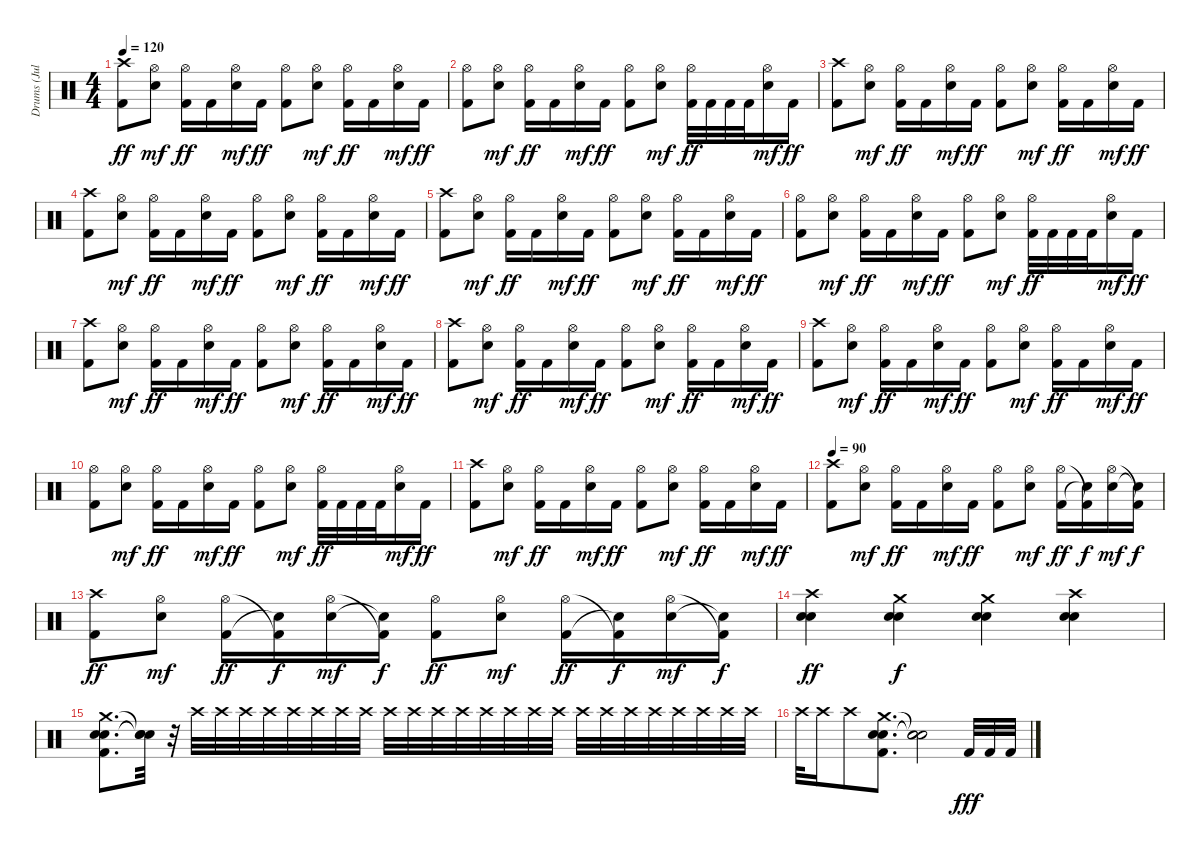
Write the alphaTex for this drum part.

\track ("Drums (Julian Del Rosario)" "Drums (Jul") {instrument percussion}
\staff {score}
\articulation defaults
\ts (4 4)
\tempo 120
\clef neutral
\ks c
("Crash high (hit)" "Kick (hit) 2").8{dy ff} ("Hi-Hat (open)" "Snare (hit) 2").8{dy mf} ("Hi-Hat (open)" "Kick (hit) 2").16{dy ff} "Kick (hit) 2".16 ("Hi-Hat (open)" "Snare (hit) 2").16{dy mf} "Kick (hit) 2".16{dy ff} ("Hi-Hat (open)" "Kick (hit) 2").8 ("Hi-Hat (open)" "Snare (hit) 2").8{dy mf} ("Hi-Hat (open)" "Kick (hit) 2").16{dy ff} "Kick (hit) 2".16 ("Hi-Hat (open)" "Snare (hit) 2").16{dy mf} "Kick (hit) 2".16{dy ff} |
("Hi-Hat (open)" "Kick (hit) 2").8 ("Hi-Hat (open)" "Snare (hit) 2").8{dy mf} ("Hi-Hat (open)" "Kick (hit) 2").16{dy ff} "Kick (hit) 2".16 ("Hi-Hat (open)" "Snare (hit) 2").16{dy mf} "Kick (hit) 2".16{dy ff} ("Hi-Hat (open)" "Kick (hit) 2").8 ("Hi-Hat (open)" "Snare (hit) 2").8{dy mf} ("Hi-Hat (open)" "Kick (hit) 2").32{dy ff} "Kick (hit) 2".32 "Kick (hit) 2".32 "Kick (hit) 2".32 ("Hi-Hat (open)" "Snare (hit) 2").16{dy mf} "Kick (hit) 2".16{dy ff} |
("Crash high (hit)" "Kick (hit) 2").8 ("Hi-Hat (open)" "Snare (hit) 2").8{dy mf} ("Hi-Hat (open)" "Kick (hit) 2").16{dy ff} "Kick (hit) 2".16 ("Hi-Hat (open)" "Snare (hit) 2").16{dy mf} "Kick (hit) 2".16{dy ff} ("Hi-Hat (open)" "Kick (hit) 2").8 ("Hi-Hat (open)" "Snare (hit) 2").8{dy mf} ("Hi-Hat (open)" "Kick (hit) 2").16{dy ff} "Kick (hit) 2".16 ("Hi-Hat (open)" "Snare (hit) 2").16{dy mf} "Kick (hit) 2".16{dy ff} |
("Crash high (hit)" "Kick (hit) 2").8 ("Hi-Hat (open)" "Snare (hit) 2").8{dy mf} ("Hi-Hat (open)" "Kick (hit) 2").16{dy ff} "Kick (hit) 2".16 ("Hi-Hat (open)" "Snare (hit) 2").16{dy mf} "Kick (hit) 2".16{dy ff} ("Hi-Hat (open)" "Kick (hit) 2").8 ("Hi-Hat (open)" "Snare (hit) 2").8{dy mf} ("Hi-Hat (open)" "Kick (hit) 2").16{dy ff} "Kick (hit) 2".16 ("Hi-Hat (open)" "Snare (hit) 2").16{dy mf} "Kick (hit) 2".16{dy ff} |
("Crash high (hit)" "Kick (hit) 2").8 ("Hi-Hat (open)" "Snare (hit) 2").8{dy mf} ("Hi-Hat (open)" "Kick (hit) 2").16{dy ff} "Kick (hit) 2".16 ("Hi-Hat (open)" "Snare (hit) 2").16{dy mf} "Kick (hit) 2".16{dy ff} ("Hi-Hat (open)" "Kick (hit) 2").8 ("Hi-Hat (open)" "Snare (hit) 2").8{dy mf} ("Hi-Hat (open)" "Kick (hit) 2").16{dy ff} "Kick (hit) 2".16 ("Hi-Hat (open)" "Snare (hit) 2").16{dy mf} "Kick (hit) 2".16{dy ff} |
("Hi-Hat (open)" "Kick (hit) 2").8 ("Hi-Hat (open)" "Snare (hit) 2").8{dy mf} ("Hi-Hat (open)" "Kick (hit) 2").16{dy ff} "Kick (hit) 2".16 ("Hi-Hat (open)" "Snare (hit) 2").16{dy mf} "Kick (hit) 2".16{dy ff} ("Hi-Hat (open)" "Kick (hit) 2").8 ("Hi-Hat (open)" "Snare (hit) 2").8{dy mf} ("Hi-Hat (open)" "Kick (hit) 2").32{dy ff} "Kick (hit) 2".32 "Kick (hit) 2".32 "Kick (hit) 2".32 ("Hi-Hat (open)" "Snare (hit) 2").16{dy mf} "Kick (hit) 2".16{dy ff} |
("Crash high (hit)" "Kick (hit) 2").8 ("Hi-Hat (open)" "Snare (hit) 2").8{dy mf} ("Hi-Hat (open)" "Kick (hit) 2").16{dy ff} "Kick (hit) 2".16 ("Hi-Hat (open)" "Snare (hit) 2").16{dy mf} "Kick (hit) 2".16{dy ff} ("Hi-Hat (open)" "Kick (hit) 2").8 ("Hi-Hat (open)" "Snare (hit) 2").8{dy mf} ("Hi-Hat (open)" "Kick (hit) 2").16{dy ff} "Kick (hit) 2".16 ("Hi-Hat (open)" "Snare (hit) 2").16{dy mf} "Kick (hit) 2".16{dy ff} |
("Crash high (hit)" "Kick (hit) 2").8 ("Hi-Hat (open)" "Snare (hit) 2").8{dy mf} ("Hi-Hat (open)" "Kick (hit) 2").16{dy ff} "Kick (hit) 2".16 ("Hi-Hat (open)" "Snare (hit) 2").16{dy mf} "Kick (hit) 2".16{dy ff} ("Hi-Hat (open)" "Kick (hit) 2").8 ("Hi-Hat (open)" "Snare (hit) 2").8{dy mf} ("Hi-Hat (open)" "Kick (hit) 2").16{dy ff} "Kick (hit) 2".16 ("Hi-Hat (open)" "Snare (hit) 2").16{dy mf} "Kick (hit) 2".16{dy ff} |
("Crash high (hit)" "Kick (hit) 2").8 ("Hi-Hat (open)" "Snare (hit) 2").8{dy mf} ("Hi-Hat (open)" "Kick (hit) 2").16{dy ff} "Kick (hit) 2".16 ("Hi-Hat (open)" "Snare (hit) 2").16{dy mf} "Kick (hit) 2".16{dy ff} ("Hi-Hat (open)" "Kick (hit) 2").8 ("Hi-Hat (open)" "Snare (hit) 2").8{dy mf} ("Hi-Hat (open)" "Kick (hit) 2").16{dy ff} "Kick (hit) 2".16 ("Hi-Hat (open)" "Snare (hit) 2").16{dy mf} "Kick (hit) 2".16{dy ff} |
("Hi-Hat (open)" "Kick (hit) 2").8 ("Hi-Hat (open)" "Snare (hit) 2").8{dy mf} ("Hi-Hat (open)" "Kick (hit) 2").16{dy ff} "Kick (hit) 2".16 ("Hi-Hat (open)" "Snare (hit) 2").16{dy mf} "Kick (hit) 2".16{dy ff} ("Hi-Hat (open)" "Kick (hit) 2").8 ("Hi-Hat (open)" "Snare (hit) 2").8{dy mf} ("Hi-Hat (open)" "Kick (hit) 2").32{dy ff} "Kick (hit) 2".32 "Kick (hit) 2".32 "Kick (hit) 2".32 ("Hi-Hat (open)" "Snare (hit) 2").16{dy mf} "Kick (hit) 2".16{dy ff} |
("Crash high (hit)" "Kick (hit) 2").8 ("Hi-Hat (open)" "Snare (hit) 2").8{dy mf} ("Hi-Hat (open)" "Kick (hit) 2").16{dy ff} "Kick (hit) 2".16 ("Hi-Hat (open)" "Snare (hit) 2").16{dy mf} "Kick (hit) 2".16{dy ff} ("Hi-Hat (open)" "Kick (hit) 2").8 ("Hi-Hat (open)" "Snare (hit) 2").8{dy mf} ("Hi-Hat (open)" "Kick (hit) 2").16{dy ff} "Kick (hit) 2".16 ("Hi-Hat (open)" "Snare (hit) 2").16{dy mf} "Kick (hit) 2".16{dy ff} |
\tempo 90
("Crash high (hit)" "Kick (hit) 2").8 ("Hi-Hat (open)" "Snare (hit) 2").8{dy mf} ("Hi-Hat (open)" "Kick (hit) 2").16{dy ff} "Kick (hit) 2".16 ("Hi-Hat (open)" "Snare (hit) 2").16{dy mf} "Kick (hit) 2".16{dy ff} ("Hi-Hat (open)" "Kick (hit) 2").8 ("Hi-Hat (open)" "Snare (hit) 2").8{dy mf} ("Hi-Hat (open)" "Kick (hit) 2").16{dy ff} ("Kick (hit) 2"{t} "Snare (hit)"{t}).16{dy f} ("Hi-Hat (open)" "Snare (hit) 2").16{dy mf} ("Kick (hit) 2"{t} "Snare (hit)"{t}).16{dy f} |
("Crash high (hit)" "Kick (hit) 2").8{dy ff} ("Hi-Hat (open)" "Snare (hit) 2").8{dy mf} ("Hi-Hat (open)" "Kick (hit) 2").16{dy ff} ("Kick (hit) 2"{t} "Snare (hit)"{t}).16{dy f} ("Hi-Hat (open)" "Snare (hit) 2").16{dy mf} ("Kick (hit) 2"{t} "Snare (hit)"{t}).16{dy f} ("Hi-Hat (open)" "Kick (hit) 2").8{dy ff} ("Hi-Hat (open)" "Snare (hit) 2").8{dy mf} ("Hi-Hat (open)" "Kick (hit) 2").16{dy ff} ("Kick (hit) 2"{t} "Snare (hit)"{t}).16{dy f} ("Hi-Hat (open)" "Snare (hit) 2").16{dy mf} ("Kick (hit) 2"{t} "Snare (hit)"{t}).16{dy f} |
("Crash high (hit)" "Snare (hit) 2" "Electric Snare (hit)").4{dy ff} ("Crash medium (hit)" "Snare (hit) 2" "Electric Snare (hit)").4{dy f} ("Crash medium (hit)" "Snare (hit) 2" "Electric Snare (hit)").4 ("Crash high (hit)" "Snare (hit) 2" "Electric Snare (hit)").4 |
("Crash medium (hit)" "Snare (hit) 2" "Electric Snare (hit)" "Kick (hit) 2").8{d} ("Snare (hit)"{t} "Snare (hit)"{t} "Snare (hit)"{t}).32 r.32{volume 0} "Crash high (hit)".32{volume 6} "Crash high (hit)".32 "Crash high (hit)".32 "Crash high (hit)".32 "Crash high (hit)".32 "Crash high (hit)".32 "Crash high (hit)".32 "Crash high (hit)".32 "Crash high (hit)".32 "Crash high (hit)".32 "Crash high (hit)".32 "Crash high (hit)".32 "Crash high (hit)".32 "Crash high (hit)".32 "Crash high (hit)".32 "Crash high (hit)".32 "Crash high (hit)".32 "Crash high (hit)".32 "Crash high (hit)".32 "Crash high (hit)".32 "Crash high (hit)".32 "Crash high (hit)".32 "Crash high (hit)".32 "Crash high (hit)".32 |
"Crash high (hit)".32 "Crash high (hit)".16 "Crash high (hit)".8 ("Crash medium (hit)" "Snare (hit) 2" "Electric Snare (hit)" "Kick (hit) 2").8{d} ("Snare (hit)"{t} "Snare (hit)"{t} "Snare (hit)"{t}).2 "Kick (hit) 2".32{dy fff} "Kick (hit) 2".32 "Kick (hit) 2".32
